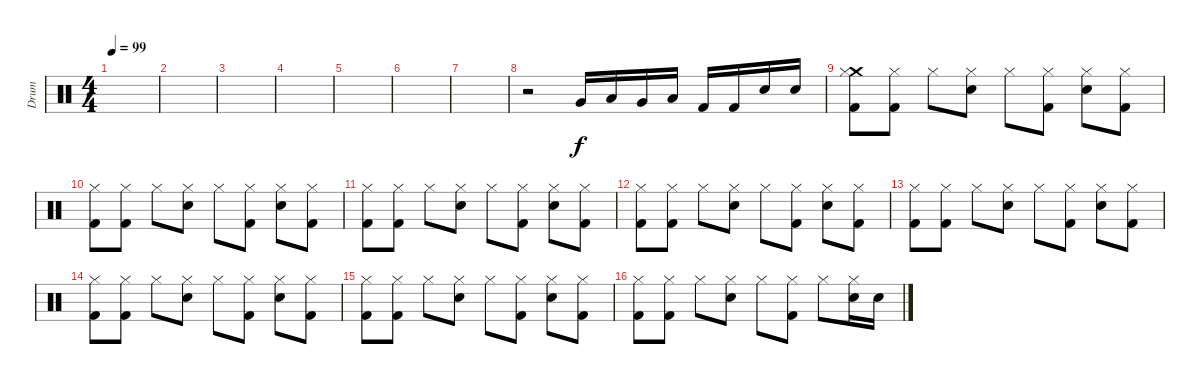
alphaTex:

\track ("Drum" "Drum") {instrument percussion}
\staff {score}
\articulation defaults
\ts (4 4)
\tempo 99
\clef neutral
\ks c
|
|
|
|
|
|
|
r.2 "Very Low Tom (hit)".16 "Low Floor Tom (hit)".16 "Very Low Tom (hit)".16 "Low Floor Tom (hit)".16 "Kick (hit) 2".16 "Kick (hit) 2".16 "Electric Snare (hit)".16 "Electric Snare (hit)".16 |
("Crash medium (hit)" "Hi-Hat (closed)" "Kick (hit) 2").8 ("Hi-Hat (closed)" "Kick (hit) 2").8 "Hi-Hat (closed)".8 ("Hi-Hat (closed)" "Electric Snare (hit)").8 "Hi-Hat (closed)".8 ("Hi-Hat (closed)" "Kick (hit) 2").8 ("Hi-Hat (closed)" "Electric Snare (hit)").8 ("Hi-Hat (closed)" "Kick (hit) 2").8 |
("Hi-Hat (closed)" "Kick (hit) 2").8 ("Hi-Hat (closed)" "Kick (hit) 2").8 "Hi-Hat (closed)".8 ("Hi-Hat (closed)" "Electric Snare (hit)").8 "Hi-Hat (closed)".8 ("Hi-Hat (closed)" "Kick (hit) 2").8 ("Hi-Hat (closed)" "Electric Snare (hit)").8 ("Hi-Hat (closed)" "Kick (hit) 2").8 |
("Hi-Hat (closed)" "Kick (hit) 2").8 ("Hi-Hat (closed)" "Kick (hit) 2").8 "Hi-Hat (closed)".8 ("Hi-Hat (closed)" "Electric Snare (hit)").8 "Hi-Hat (closed)".8 ("Hi-Hat (closed)" "Kick (hit) 2").8 ("Hi-Hat (closed)" "Electric Snare (hit)").8 ("Hi-Hat (closed)" "Kick (hit) 2").8 |
("Hi-Hat (closed)" "Kick (hit) 2").8 ("Hi-Hat (closed)" "Kick (hit) 2").8 "Hi-Hat (closed)".8 ("Hi-Hat (closed)" "Electric Snare (hit)").8 "Hi-Hat (closed)".8 ("Hi-Hat (closed)" "Kick (hit) 2").8 ("Hi-Hat (closed)" "Electric Snare (hit)").8 ("Hi-Hat (closed)" "Kick (hit) 2").8 |
("Hi-Hat (closed)" "Kick (hit) 2").8 ("Hi-Hat (closed)" "Kick (hit) 2").8 "Hi-Hat (closed)".8 ("Hi-Hat (closed)" "Electric Snare (hit)").8 "Hi-Hat (closed)".8 ("Hi-Hat (closed)" "Kick (hit) 2").8 ("Hi-Hat (closed)" "Electric Snare (hit)").8 ("Hi-Hat (closed)" "Kick (hit) 2").8 |
("Hi-Hat (closed)" "Kick (hit) 2").8 ("Hi-Hat (closed)" "Kick (hit) 2").8 "Hi-Hat (closed)".8 ("Hi-Hat (closed)" "Electric Snare (hit)").8 "Hi-Hat (closed)".8 ("Hi-Hat (closed)" "Kick (hit) 2").8 ("Hi-Hat (closed)" "Electric Snare (hit)").8 ("Hi-Hat (closed)" "Kick (hit) 2").8 |
("Hi-Hat (closed)" "Kick (hit) 2").8 ("Hi-Hat (closed)" "Kick (hit) 2").8 "Hi-Hat (closed)".8 ("Hi-Hat (closed)" "Electric Snare (hit)").8 "Hi-Hat (closed)".8 ("Hi-Hat (closed)" "Kick (hit) 2").8 ("Hi-Hat (closed)" "Electric Snare (hit)").8 ("Hi-Hat (closed)" "Kick (hit) 2").8 |
("Hi-Hat (closed)" "Kick (hit) 2").8 ("Hi-Hat (closed)" "Kick (hit) 2").8 "Hi-Hat (closed)".8 ("Hi-Hat (closed)" "Electric Snare (hit)").8 "Hi-Hat (closed)".8 ("Hi-Hat (closed)" "Kick (hit) 2").8 "Hi-Hat (closed)".8 ("Hi-Hat (closed)" "Electric Snare (hit)").16 "Electric Snare (hit)".16
